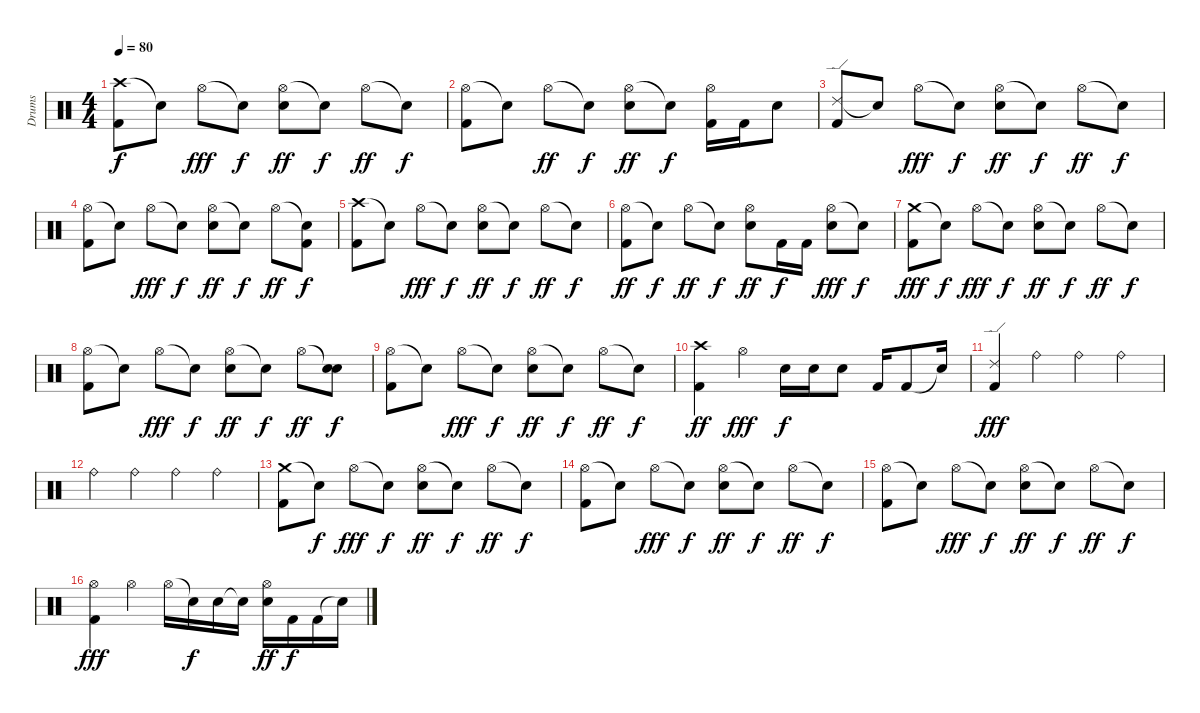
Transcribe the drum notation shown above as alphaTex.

\track ("Drums" "Drums") {instrument percussion}
\staff {score}
\articulation defaults
\ts (4 4)
\tempo 80
\clef neutral
\ks c
("Crash high (hit)" "Kick (hit) 2").8{dy f} "Snare (hit)"{t}.8 "Hi-Hat (open)".8{dy fff} "Snare (hit)"{t}.8{dy f} ("Hi-Hat (open)" "Electric Snare (hit)").8{dy ff} "Snare (hit)"{t}.8{dy f} "Hi-Hat (open)".8{dy ff} "Snare (hit)"{t}.8{dy f} |
("Hi-Hat (open)" "Kick (hit) 2").8 "Snare (hit)"{t}.8 "Hi-Hat (open)".8{dy ff} "Snare (hit)"{t}.8{dy f} ("Hi-Hat (open)" "Snare (hit) 2").8{dy ff} "Snare (hit)"{t}.8{dy f} ("Hi-Hat (open)" "Kick (hit) 2").16 "Kick (hit) 2".16 "Snare (hit) 2".8 |
("Ride (edge) 2" "Kick (hit) 2").8 "Snare (hit)"{t}.8 "Hi-Hat (open)".8{dy fff} "Snare (hit)"{t}.8{dy f} ("Hi-Hat (open)" "Electric Snare (hit)").8{dy ff} "Snare (hit)"{t}.8{dy f} "Hi-Hat (open)".8{dy ff} "Snare (hit)"{t}.8{dy f} |
("Hi-Hat (open)" "Kick (hit) 2").8 "Snare (hit)"{t}.8 "Hi-Hat (open)".8{dy fff} "Snare (hit)"{t}.8{dy f} ("Hi-Hat (open)" "Electric Snare (hit)").8{dy ff} "Snare (hit)"{t}.8{dy f} "Hi-Hat (open)".8{dy ff} ("Snare (hit)"{t} "Kick (hit) 2").8{dy f} |
("Crash high (hit)" "Kick (hit) 2").8 "Snare (hit)"{t}.8 "Hi-Hat (open)".8{dy fff} "Snare (hit)"{t}.8{dy f} ("Hi-Hat (open)" "Electric Snare (hit)").8{dy ff} "Snare (hit)"{t}.8{dy f} "Hi-Hat (open)".8{dy ff} "Snare (hit)"{t}.8{dy f} |
("Hi-Hat (open)" "Kick (hit) 2").8{dy ff} "Snare (hit)"{t}.8{dy f} "Hi-Hat (open)".8{dy ff} "Snare (hit)"{t}.8{dy f} ("Hi-Hat (open)" "Electric Snare (hit)").8{dy ff} "Kick (hit) 2".16{dy f} "Kick (hit) 2".16 ("Hi-Hat (open)" "Electric Snare (hit)").8{dy fff} "Snare (hit)"{t}.8{dy f} |
("Crash medium (hit)" "Kick (hit) 2").8{dy fff} "Snare (hit)"{t}.8{dy f} "Hi-Hat (open)".8{dy fff} "Snare (hit)"{t}.8{dy f} ("Hi-Hat (open)" "Electric Snare (hit)").8{dy ff} "Snare (hit)"{t}.8{dy f} "Hi-Hat (open)".8{dy ff} "Snare (hit)"{t}.8{dy f} |
("Hi-Hat (open)" "Kick (hit) 2").8 "Snare (hit)"{t}.8 "Hi-Hat (open)".8{dy fff} "Snare (hit)"{t}.8{dy f} ("Hi-Hat (open)" "Electric Snare (hit)").8{dy ff} "Snare (hit)"{t}.8{dy f} "Hi-Hat (open)".8{dy ff} ("Snare (hit)"{t} "Electric Snare (hit)").8{dy f} |
("Hi-Hat (open)" "Kick (hit) 2").8 "Snare (hit)"{t}.8 "Hi-Hat (open)".8{dy fff} "Snare (hit)"{t}.8{dy f} ("Hi-Hat (open)" "Electric Snare (hit)").8{dy ff} "Snare (hit)"{t}.8{dy f} "Hi-Hat (open)".8{dy ff} "Snare (hit)"{t}.8{dy f} |
("Crash high (hit)" "Kick (hit) 2").4{dy ff} "Hi-Hat (open)".4{dy fff} "Electric Snare (hit)".16{dy f} "Electric Snare (hit)".16 "Electric Snare (hit)".8 "Kick (hit) 2".16 "Kick (hit) 2".8 "Snare (hit)"{t}.16 |
("Ride (edge) 2" "Kick (hit) 2").4{dy fff} "Ride (bell)".4 "Ride (bell)".4 "Ride (bell)".4 |
"Ride (bell)".4 "Ride (bell)".4 "Ride (bell)".4 "Ride (bell)".4 |
("Crash medium (hit)" "Kick (hit) 2").8 "Snare (hit)"{t}.8{dy f} "Hi-Hat (open)".8{dy fff} "Snare (hit)"{t}.8{dy f} ("Hi-Hat (open)" "Electric Snare (hit)").8{dy ff} "Snare (hit)"{t}.8{dy f} "Hi-Hat (open)".8{dy ff} "Snare (hit)"{t}.8{dy f} |
("Hi-Hat (open)" "Kick (hit) 2").8 "Snare (hit)"{t}.8 "Hi-Hat (open)".8{dy fff} "Snare (hit)"{t}.8{dy f} ("Hi-Hat (open)" "Electric Snare (hit)").8{dy ff} "Snare (hit)"{t}.8{dy f} "Hi-Hat (open)".8{dy ff} "Snare (hit)"{t}.8{dy f} |
("Hi-Hat (open)" "Kick (hit) 2").8 "Snare (hit)"{t}.8 "Hi-Hat (open)".8{dy fff} "Snare (hit)"{t}.8{dy f} ("Hi-Hat (open)" "Electric Snare (hit)").8{dy ff} "Snare (hit)"{t}.8{dy f} "Hi-Hat (open)".8{dy ff} "Snare (hit)"{t}.8{dy f} |
("Hi-Hat (open)" "Kick (hit) 2").4{dy fff} "Hi-Hat (open)".4 "Hi-Hat (open)".16 "Snare (hit)"{t}.16{dy f} "Electric Snare (hit)".16 "Snare (hit)"{t}.16 ("Hi-Hat (open)" "Electric Snare (hit)").16{dy ff} "Kick (hit) 2".16{dy f} "Kick (hit) 2".16 "Snare (hit)"{t}.16
